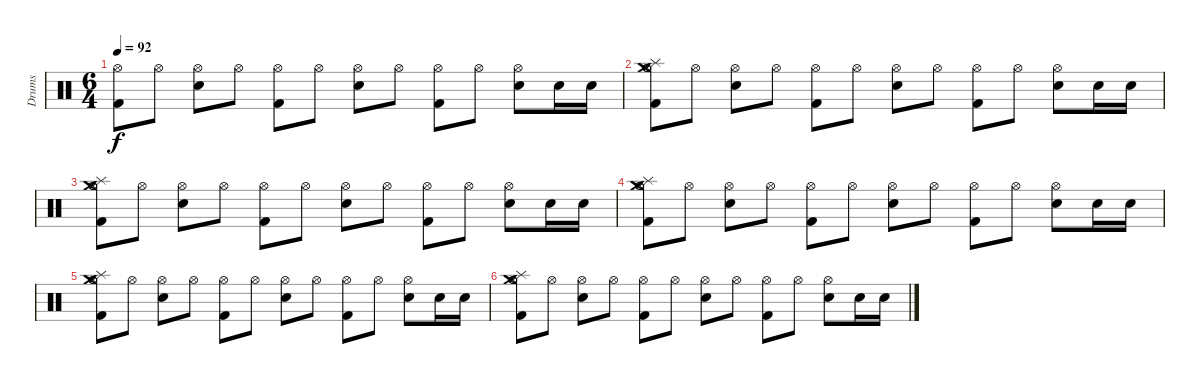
\track ("Drums" "Drums") {instrument percussion}
\staff {score}
\articulation defaults
\ts (6 4)
\tempo 92
\clef neutral
\ks c
("Hi-Hat (open)" "Kick (hit) 2").8{dy f} "Hi-Hat (open)".8 ("Hi-Hat (open)" "Snare (hit) 2").8 "Hi-Hat (open)".8 ("Hi-Hat (open)" "Kick (hit) 2").8 "Hi-Hat (open)".8 ("Hi-Hat (open)" "Snare (hit) 2").8 "Hi-Hat (open)".8 ("Hi-Hat (open)" "Kick (hit) 2").8 "Hi-Hat (open)".8 ("Hi-Hat (open)" "Snare (hit) 2").8 "Snare (hit) 2".16 "Snare (hit) 2".16 |
("Hi-Hat (open)" "Splash (hit)" "Crash medium (hit)" "Hi-Hat (open)" "Kick (hit) 2").8 "Hi-Hat (open)".8 ("Hi-Hat (open)" "Snare (hit) 2").8 "Hi-Hat (open)".8 ("Hi-Hat (open)" "Kick (hit) 2").8 "Hi-Hat (open)".8 ("Hi-Hat (open)" "Snare (hit) 2").8 "Hi-Hat (open)".8 ("Hi-Hat (open)" "Kick (hit) 2").8 "Hi-Hat (open)".8 ("Hi-Hat (open)" "Snare (hit) 2").8 "Snare (hit) 2".16 "Snare (hit) 2".16 |
("Hi-Hat (open)" "Splash (hit)" "Crash medium (hit)" "Hi-Hat (open)" "Kick (hit) 2").8 "Hi-Hat (open)".8 ("Hi-Hat (open)" "Snare (hit) 2").8 "Hi-Hat (open)".8 ("Hi-Hat (open)" "Kick (hit) 2").8 "Hi-Hat (open)".8 ("Hi-Hat (open)" "Snare (hit) 2").8 "Hi-Hat (open)".8 ("Hi-Hat (open)" "Kick (hit) 2").8 "Hi-Hat (open)".8 ("Hi-Hat (open)" "Snare (hit) 2").8 "Snare (hit) 2".16 "Snare (hit) 2".16 |
("Hi-Hat (open)" "Splash (hit)" "Crash medium (hit)" "Hi-Hat (open)" "Kick (hit) 2").8 "Hi-Hat (open)".8 ("Hi-Hat (open)" "Snare (hit) 2").8 "Hi-Hat (open)".8 ("Hi-Hat (open)" "Kick (hit) 2").8 "Hi-Hat (open)".8 ("Hi-Hat (open)" "Snare (hit) 2").8 "Hi-Hat (open)".8 ("Hi-Hat (open)" "Kick (hit) 2").8 "Hi-Hat (open)".8 ("Hi-Hat (open)" "Snare (hit) 2").8 "Snare (hit) 2".16 "Snare (hit) 2".16 |
("Hi-Hat (open)" "Splash (hit)" "Crash medium (hit)" "Hi-Hat (open)" "Kick (hit) 2").8{volume 0} "Hi-Hat (open)".8 ("Hi-Hat (open)" "Snare (hit) 2").8 "Hi-Hat (open)".8 ("Hi-Hat (open)" "Kick (hit) 2").8 "Hi-Hat (open)".8 ("Hi-Hat (open)" "Snare (hit) 2").8 "Hi-Hat (open)".8 ("Hi-Hat (open)" "Kick (hit) 2").8 "Hi-Hat (open)".8 ("Hi-Hat (open)" "Snare (hit) 2").8 "Snare (hit) 2".16 "Snare (hit) 2".16 |
("Hi-Hat (open)" "Splash (hit)" "Crash medium (hit)" "Hi-Hat (open)" "Kick (hit) 2").8 "Hi-Hat (open)".8 ("Hi-Hat (open)" "Snare (hit) 2").8 "Hi-Hat (open)".8 ("Hi-Hat (open)" "Kick (hit) 2").8 "Hi-Hat (open)".8 ("Hi-Hat (open)" "Snare (hit) 2").8 "Hi-Hat (open)".8 ("Hi-Hat (open)" "Kick (hit) 2").8 "Hi-Hat (open)".8 ("Hi-Hat (open)" "Snare (hit) 2").8 "Snare (hit) 2".16 "Snare (hit) 2".16
